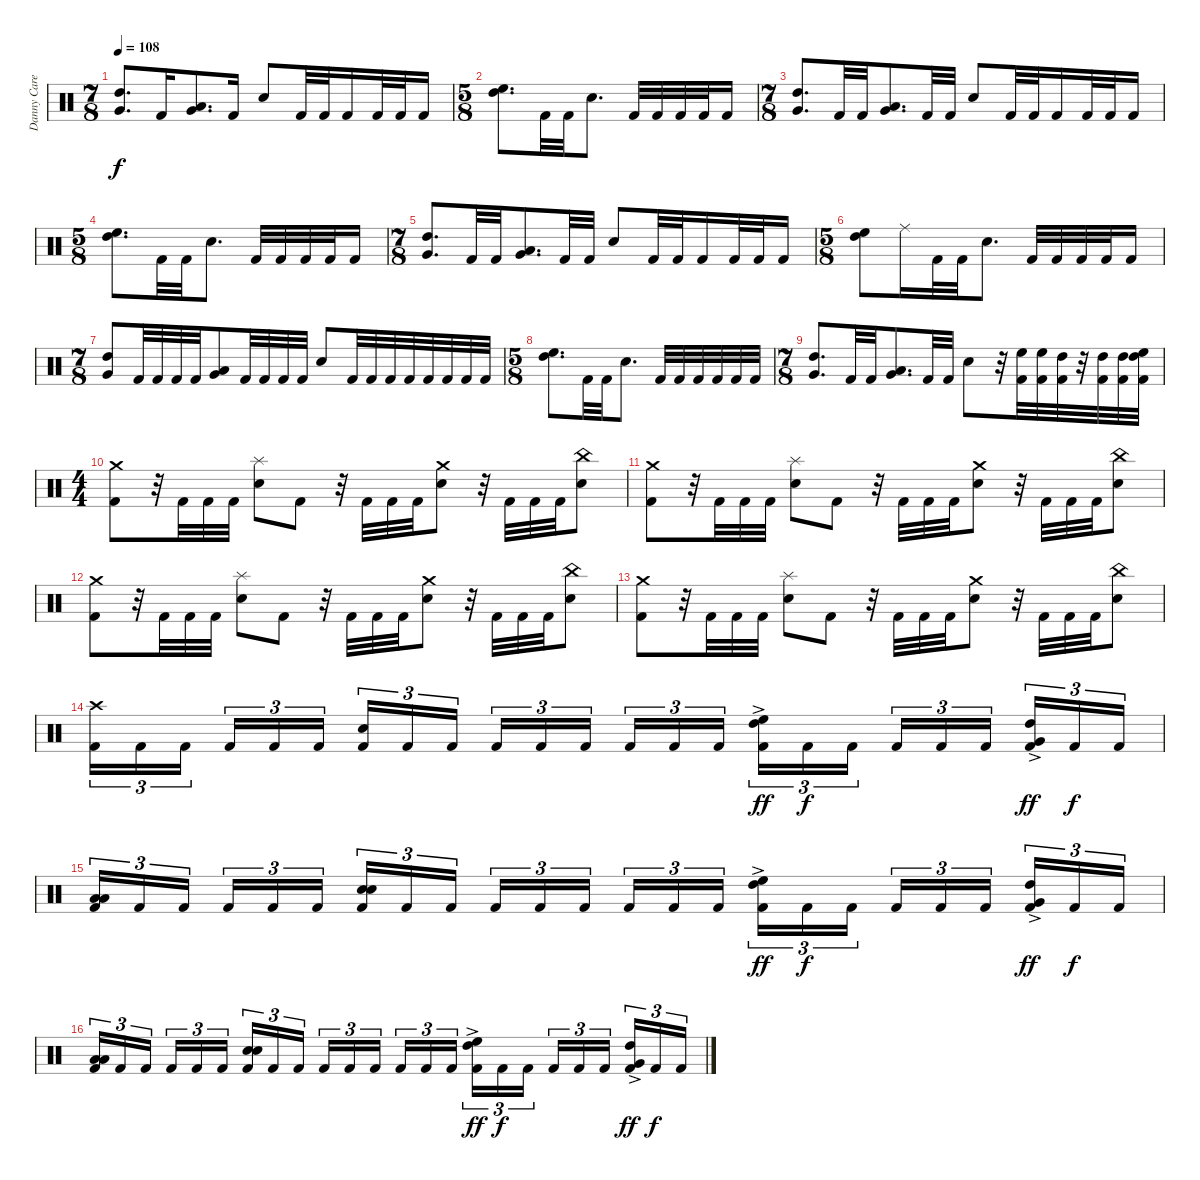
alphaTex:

\track ("Danny Carey" "Danny Care") {instrument percussion}
\staff {score}
\articulation defaults
\ts (7 8)
\tempo 108
\clef neutral
\ks c
("High Tom (hit)" "Very Low Tom (hit)").8{d dy f} "Kick (hit) 2".16 ("Very Low Tom (hit)" "Low Floor Tom (hit)").8{d} "Kick (hit) 2".16 "Electric Snare (hit)".8 "Kick (hit) 2".32 "Kick (hit) 2".32 "Kick (hit) 2".16 "Kick (hit) 2".32 "Kick (hit) 2".32 "Kick (hit) 2".16 |
\ts (5 8)
("High Floor Tom (hit)" "High Tom (hit)").8{d} "Kick (hit) 2".32 "Kick (hit) 2".32 "Electric Snare (hit)".8{d} "Kick (hit) 2".32 "Kick (hit) 2".32 "Kick (hit) 2".32 "Kick (hit) 2".32 "Kick (hit) 2".16 |
\ts (7 8)
("High Tom (hit)" "Very Low Tom (hit)").8{d} "Kick (hit) 2".32 "Kick (hit) 2".32 ("Very Low Tom (hit)" "Low Floor Tom (hit)").8{d} "Kick (hit) 2".32 "Kick (hit) 2".32 "Electric Snare (hit)".8 "Kick (hit) 2".32 "Kick (hit) 2".32 "Kick (hit) 2".16 "Kick (hit) 2".32 "Kick (hit) 2".32 "Kick (hit) 2".16 |
\ts (5 8)
("High Floor Tom (hit)" "High Tom (hit)").8{d} "Kick (hit) 2".32 "Kick (hit) 2".32 "Electric Snare (hit)".8{d} "Kick (hit) 2".32 "Kick (hit) 2".32 "Kick (hit) 2".32 "Kick (hit) 2".32 "Kick (hit) 2".16 |
\ts (7 8)
("High Tom (hit)" "Very Low Tom (hit)").8{d} "Kick (hit) 2".32 "Kick (hit) 2".32 ("Very Low Tom (hit)" "Low Floor Tom (hit)").8{d} "Kick (hit) 2".32 "Kick (hit) 2".32 "Electric Snare (hit)".8 "Kick (hit) 2".32 "Kick (hit) 2".32 "Kick (hit) 2".16 "Kick (hit) 2".32 "Kick (hit) 2".32 "Kick (hit) 2".16 |
\ts (5 8)
("High Floor Tom (hit)" "High Tom (hit)").8 "Ride (middle)".16 "Kick (hit) 2".32 "Kick (hit) 2".32 "Electric Snare (hit)".8{d} "Kick (hit) 2".32 "Kick (hit) 2".32 "Kick (hit) 2".32 "Kick (hit) 2".32 "Kick (hit) 2".16 |
\ts (7 8)
("High Tom (hit)" "Very Low Tom (hit)").8 "Kick (hit) 2".32 "Kick (hit) 2".32 "Kick (hit) 2".32 "Kick (hit) 2".32 ("Very Low Tom (hit)" "Low Floor Tom (hit)").8 "Kick (hit) 2".32 "Kick (hit) 2".32 "Kick (hit) 2".32 "Kick (hit) 2".32 "Electric Snare (hit)".8 "Kick (hit) 2".32 "Kick (hit) 2".32 "Kick (hit) 2".32 "Kick (hit) 2".32 "Kick (hit) 2".32 "Kick (hit) 2".32 "Kick (hit) 2".32 "Kick (hit) 2".32 |
\ts (5 8)
("High Floor Tom (hit)" "High Tom (hit)").8{d} "Kick (hit) 2".32 "Kick (hit) 2".32 "Electric Snare (hit)".8{d} "Kick (hit) 2".32 "Kick (hit) 2".32 "Kick (hit) 2".32 "Kick (hit) 2".32 "Kick (hit) 2".32 "Kick (hit) 2".32 |
\ts (7 8)
("High Tom (hit)" "Very Low Tom (hit)").8{d} "Kick (hit) 2".32 "Kick (hit) 2".32 ("Very Low Tom (hit)" "Low Floor Tom (hit)").8{d} "Kick (hit) 2".32 "Kick (hit) 2".32 "Electric Snare (hit)".8 r.32 ("High Floor Tom (hit)" "Kick (hit) 2").32 ("High Floor Tom (hit)" "Kick (hit) 2").32 ("High Tom (hit)" "Kick (hit) 2").32 r.32 ("High Tom (hit)" "Kick (hit) 2").32 ("High Tom (hit)" "Kick (hit) 2").32 ("High Floor Tom (hit)" "High Tom (hit)" "Kick (hit) 2").32 |
\ts (4 4)
("Crash medium (hit)" "Kick (hit) 2").8 r.32 "Kick (hit) 2".32 "Kick (hit) 2".32 "Kick (hit) 2".32 ("Splash (hit)" "Electric Snare (hit)").8 "Kick (hit) 2".8 r.32 "Kick (hit) 2".32 "Kick (hit) 2".32 "Kick (hit) 2".32 ("Crash medium (hit)" "Electric Snare (hit)").8 r.32 "Kick (hit) 2".32 "Kick (hit) 2".32 "Kick (hit) 2".32 ("China (hit)" "Electric Snare (hit)").8 |
("Crash medium (hit)" "Kick (hit) 2").8 r.32 "Kick (hit) 2".32 "Kick (hit) 2".32 "Kick (hit) 2".32 ("Splash (hit)" "Electric Snare (hit)").8 "Kick (hit) 2".8 r.32 "Kick (hit) 2".32 "Kick (hit) 2".32 "Kick (hit) 2".32 ("Crash medium (hit)" "Electric Snare (hit)").8 r.32 "Kick (hit) 2".32 "Kick (hit) 2".32 "Kick (hit) 2".32 ("China (hit)" "Electric Snare (hit)").8 |
("Crash medium (hit)" "Kick (hit) 2").8 r.32 "Kick (hit) 2".32 "Kick (hit) 2".32 "Kick (hit) 2".32 ("Splash (hit)" "Electric Snare (hit)").8 "Kick (hit) 2".8 r.32 "Kick (hit) 2".32 "Kick (hit) 2".32 "Kick (hit) 2".32 ("Crash medium (hit)" "Electric Snare (hit)").8 r.32 "Kick (hit) 2".32 "Kick (hit) 2".32 "Kick (hit) 2".32 ("China (hit)" "Electric Snare (hit)").8 |
("Crash medium (hit)" "Kick (hit) 2").8 r.32 "Kick (hit) 2".32 "Kick (hit) 2".32 "Kick (hit) 2".32 ("Splash (hit)" "Electric Snare (hit)").8 "Kick (hit) 2".8 r.32 "Kick (hit) 2".32 "Kick (hit) 2".32 "Kick (hit) 2".32 ("Crash medium (hit)" "Electric Snare (hit)").8 r.32 "Kick (hit) 2".32 "Kick (hit) 2".32 "Kick (hit) 2".32 ("China (hit)" "Electric Snare (hit)").8 |
("Crash high (hit)" "Kick (hit) 2").16{tu (3 2)} "Kick (hit) 2".16{tu (3 2)} "Kick (hit) 2".16{tu (3 2)} "Kick (hit) 2".16{tu (3 2)} "Kick (hit) 2".16{tu (3 2)} "Kick (hit) 2".16{tu (3 2)} ("Electric Snare (hit)" "Kick (hit) 2").16{tu (3 2)} "Kick (hit) 2".16{tu (3 2)} "Kick (hit) 2".16{tu (3 2)} "Kick (hit) 2".16{tu (3 2)} "Kick (hit) 2".16{tu (3 2)} "Kick (hit) 2".16{tu (3 2)} "Kick (hit) 2".16{tu (3 2)} "Kick (hit) 2".16{tu (3 2)} "Kick (hit) 2".16{tu (3 2)} ("High Floor Tom (hit)"{ac} "High Tom (hit)"{ac} "Kick (hit) 2").16{tu (3 2) dy ff} "Kick (hit) 2".16{tu (3 2) dy f} "Kick (hit) 2".16{tu (3 2)} "Kick (hit) 2".16{tu (3 2)} "Kick (hit) 2".16{tu (3 2)} "Kick (hit) 2".16{tu (3 2)} ("High Tom (hit)"{ac} "Very Low Tom (hit)"{ac} "Kick (hit) 2").16{tu (3 2) dy ff} "Kick (hit) 2".16{tu (3 2) dy f} "Kick (hit) 2".16{tu (3 2)} |
("Low Floor Tom (hit)" "Low Floor Tom (hit)" "Kick (hit) 2").16{tu (3 2)} "Kick (hit) 2".16{tu (3 2)} "Kick (hit) 2".16{tu (3 2)} "Kick (hit) 2".16{tu (3 2)} "Kick (hit) 2".16{tu (3 2)} "Kick (hit) 2".16{tu (3 2)} ("Electric Snare (hit)" "Electric Snare (hit)" "Kick (hit) 2").16{tu (3 2)} "Kick (hit) 2".16{tu (3 2)} "Kick (hit) 2".16{tu (3 2)} "Kick (hit) 2".16{tu (3 2)} "Kick (hit) 2".16{tu (3 2)} "Kick (hit) 2".16{tu (3 2)} "Kick (hit) 2".16{tu (3 2)} "Kick (hit) 2".16{tu (3 2)} "Kick (hit) 2".16{tu (3 2)} ("High Floor Tom (hit)"{ac} "High Tom (hit)"{ac} "Kick (hit) 2").16{tu (3 2) dy ff} "Kick (hit) 2".16{tu (3 2) dy f} "Kick (hit) 2".16{tu (3 2)} "Kick (hit) 2".16{tu (3 2)} "Kick (hit) 2".16{tu (3 2)} "Kick (hit) 2".16{tu (3 2)} ("High Tom (hit)"{ac} "Very Low Tom (hit)"{ac} "Kick (hit) 2").16{tu (3 2) dy ff} "Kick (hit) 2".16{tu (3 2) dy f} "Kick (hit) 2".16{tu (3 2)} |
("Low Floor Tom (hit)" "Low Floor Tom (hit)" "Kick (hit) 2").16{tu (3 2)} "Kick (hit) 2".16{tu (3 2)} "Kick (hit) 2".16{tu (3 2)} "Kick (hit) 2".16{tu (3 2)} "Kick (hit) 2".16{tu (3 2)} "Kick (hit) 2".16{tu (3 2)} ("Electric Snare (hit)" "Electric Snare (hit)" "Kick (hit) 2").16{tu (3 2)} "Kick (hit) 2".16{tu (3 2)} "Kick (hit) 2".16{tu (3 2)} "Kick (hit) 2".16{tu (3 2)} "Kick (hit) 2".16{tu (3 2)} "Kick (hit) 2".16{tu (3 2)} "Kick (hit) 2".16{tu (3 2)} "Kick (hit) 2".16{tu (3 2)} "Kick (hit) 2".16{tu (3 2)} ("High Floor Tom (hit)"{ac} "High Tom (hit)"{ac} "Kick (hit) 2").16{tu (3 2) dy ff} "Kick (hit) 2".16{tu (3 2) dy f} "Kick (hit) 2".16{tu (3 2)} "Kick (hit) 2".16{tu (3 2)} "Kick (hit) 2".16{tu (3 2)} "Kick (hit) 2".16{tu (3 2)} ("High Tom (hit)"{ac} "Very Low Tom (hit)"{ac} "Kick (hit) 2").16{tu (3 2) dy ff} "Kick (hit) 2".16{tu (3 2) dy f} "Kick (hit) 2".16{tu (3 2)}
